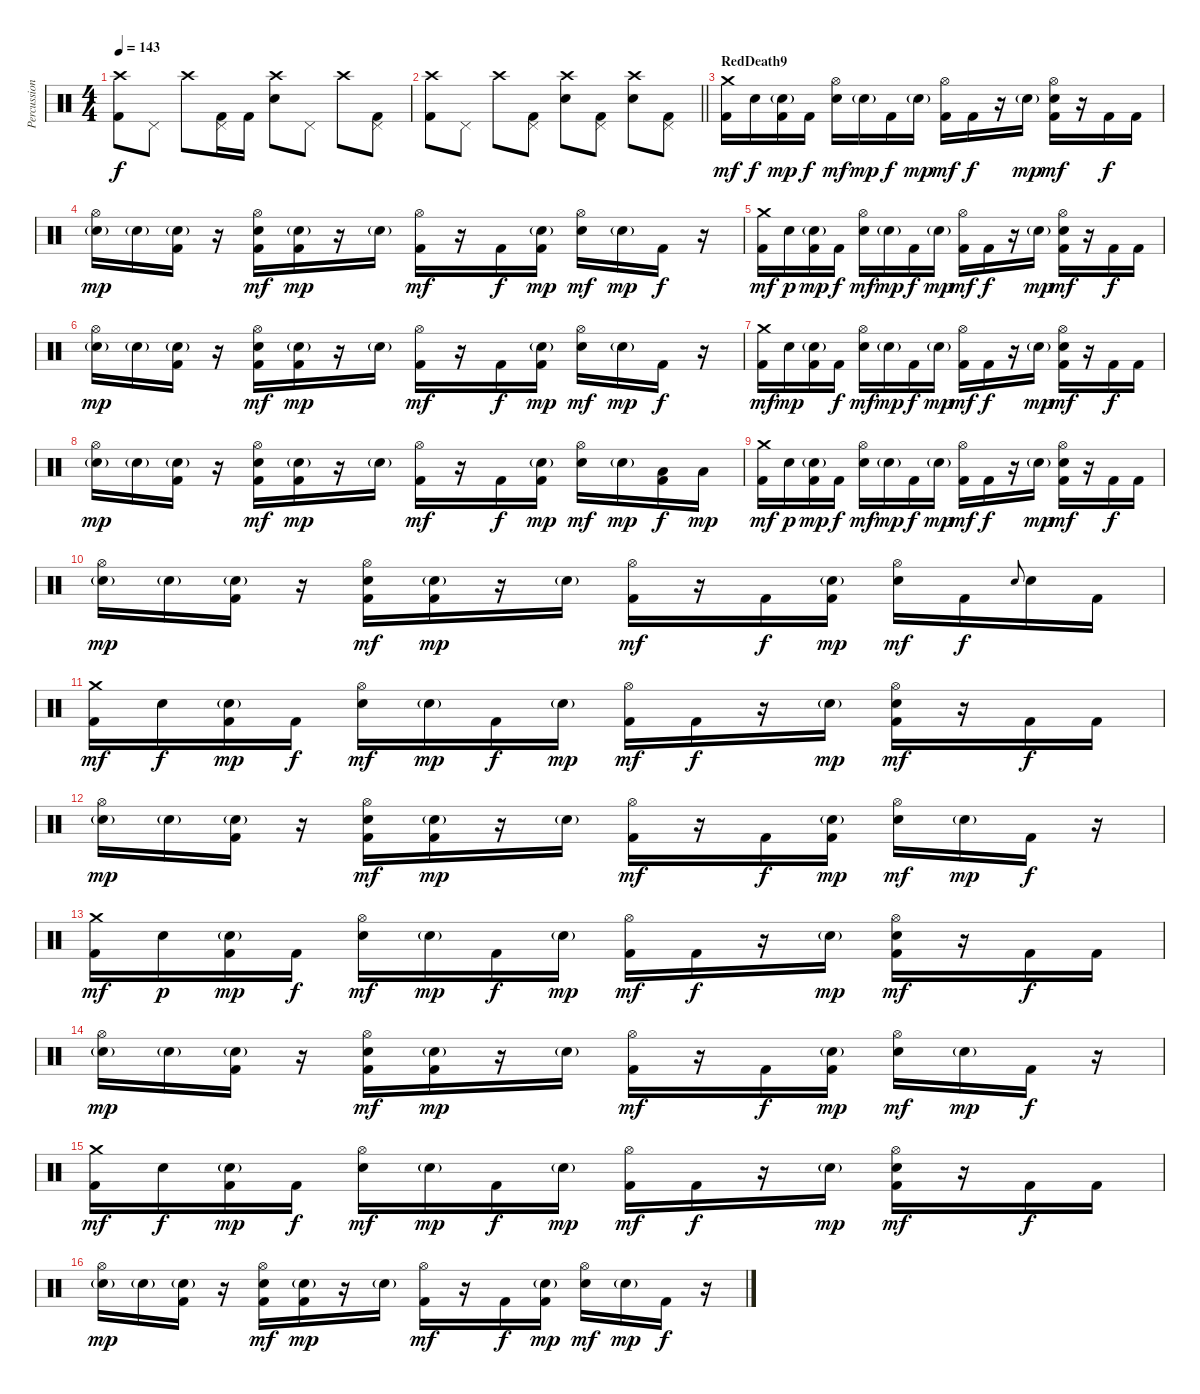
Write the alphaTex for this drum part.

\track ("Percussion" "Percussion") {instrument percussion}
\staff {score}
\articulation defaults
\ts (4 4)
\tempo 143
\clef neutral
\ks c
("Crash high (hit)" "Kick (hit) 2").8{dy f} "Pedal Hi-Hat (hit)".8 "Crash high (hit)".8 ("Pedal Hi-Hat (hit)" "Kick (hit) 2").16 "Kick (hit) 2".16 ("Crash high (hit)" "Snare (hit) 2").8 "Pedal Hi-Hat (hit)".8 "Crash high (hit)".8 ("Pedal Hi-Hat (hit)" "Kick (hit) 2").8 |
\barLineRight lightlight
("Crash high (hit)" "Kick (hit) 2").8 "Pedal Hi-Hat (hit)".8 "Crash high (hit)".8 ("Pedal Hi-Hat (hit)" "Kick (hit) 2").8 ("Crash high (hit)" "Snare (hit) 2").8 ("Pedal Hi-Hat (hit)" "Kick (hit) 2").8 ("Crash high (hit)" "Snare (hit) 2").8 ("Pedal Hi-Hat (hit)" "Kick (hit) 2").8 |
\section ("" "RedDeath9")
("Crash medium (hit)" "Kick (hit) 2").16{dy mf} "Electric Snare (hit)".16{dy f} ("Electric Snare (hit)"{g} "Kick (hit) 2").16{dy mp} "Kick (hit) 2".16{dy f} ("Hi-Hat (open)" "Electric Snare (hit)").16{dy mf} "Electric Snare (hit)"{g}.16{dy mp} "Kick (hit) 2".16{dy f} "Electric Snare (hit)"{g}.16{dy mp} ("Hi-Hat (open)" "Kick (hit) 2").16{dy mf} "Kick (hit) 2".16{dy f} r.16 "Electric Snare (hit)"{g}.16{dy mp} ("Hi-Hat (open)" "Electric Snare (hit)" "Kick (hit) 2").16{dy mf} r.16 "Kick (hit) 2".16{dy f} "Kick (hit) 2".16 |
("Hi-Hat (open)" "Electric Snare (hit)"{g}).16{dy mp} "Electric Snare (hit)"{g}.16 ("Electric Snare (hit)"{g} "Kick (hit) 2").16 r.16 ("Hi-Hat (open)" "Electric Snare (hit)" "Kick (hit) 2").16{dy mf} ("Electric Snare (hit)"{g} "Kick (hit) 2").16{dy mp} r.16 "Electric Snare (hit)"{g}.16 ("Hi-Hat (open)" "Kick (hit) 2").16{dy mf} r.16 "Kick (hit) 2".16{dy f} ("Electric Snare (hit)"{g} "Kick (hit) 2").16{dy mp} ("Hi-Hat (open)" "Electric Snare (hit)").16{dy mf} "Electric Snare (hit)"{g}.16{dy mp} "Kick (hit) 2".16{dy f} r.16 |
("Crash medium (hit)" "Kick (hit) 2").16{dy mf} "Electric Snare (hit)".16{dy p} ("Electric Snare (hit)"{g} "Kick (hit) 2").16{dy mp} "Kick (hit) 2".16{dy f} ("Hi-Hat (open)" "Electric Snare (hit)").16{dy mf} "Electric Snare (hit)"{g}.16{dy mp} "Kick (hit) 2".16{dy f} "Electric Snare (hit)"{g}.16{dy mp} ("Hi-Hat (open)" "Kick (hit) 2").16{dy mf} "Kick (hit) 2".16{dy f} r.16 "Electric Snare (hit)"{g}.16{dy mp} ("Hi-Hat (open)" "Electric Snare (hit)" "Kick (hit) 2").16{dy mf} r.16 "Kick (hit) 2".16{dy f} "Kick (hit) 2".16 |
("Hi-Hat (open)" "Electric Snare (hit)"{g}).16{dy mp} "Electric Snare (hit)"{g}.16 ("Electric Snare (hit)"{g} "Kick (hit) 2").16 r.16 ("Hi-Hat (open)" "Electric Snare (hit)" "Kick (hit) 2").16{dy mf} ("Electric Snare (hit)"{g} "Kick (hit) 2").16{dy mp} r.16 "Electric Snare (hit)"{g}.16 ("Hi-Hat (open)" "Kick (hit) 2").16{dy mf} r.16 "Kick (hit) 2".16{dy f} ("Electric Snare (hit)"{g} "Kick (hit) 2").16{dy mp} ("Hi-Hat (open)" "Electric Snare (hit)").16{dy mf} "Electric Snare (hit)"{g}.16{dy mp} "Kick (hit) 2".16{dy f} r.16 |
("Crash medium (hit)" "Kick (hit) 2").16{dy mf} "Electric Snare (hit)".16{dy mp} ("Electric Snare (hit)"{g} "Kick (hit) 2").16 "Kick (hit) 2".16{dy f} ("Hi-Hat (open)" "Electric Snare (hit)").16{dy mf} "Electric Snare (hit)"{g}.16{dy mp} "Kick (hit) 2".16{dy f} "Electric Snare (hit)"{g}.16{dy mp} ("Hi-Hat (open)" "Kick (hit) 2").16{dy mf} "Kick (hit) 2".16{dy f} r.16 "Electric Snare (hit)"{g}.16{dy mp} ("Hi-Hat (open)" "Electric Snare (hit)" "Kick (hit) 2").16{dy mf} r.16 "Kick (hit) 2".16{dy f} "Kick (hit) 2".16 |
("Hi-Hat (open)" "Electric Snare (hit)"{g}).16{dy mp} "Electric Snare (hit)"{g}.16 ("Electric Snare (hit)"{g} "Kick (hit) 2").16 r.16 ("Hi-Hat (open)" "Electric Snare (hit)" "Kick (hit) 2").16{dy mf} ("Electric Snare (hit)"{g} "Kick (hit) 2").16{dy mp} r.16 "Electric Snare (hit)"{g}.16 ("Hi-Hat (open)" "Kick (hit) 2").16{dy mf} r.16 "Kick (hit) 2".16{dy f} ("Electric Snare (hit)"{g} "Kick (hit) 2").16{dy mp} ("Hi-Hat (open)" "Electric Snare (hit)").16{dy mf} "Electric Snare (hit)"{g}.16{dy mp} ("Low Tom (hit)" "Kick (hit) 2").16{dy f} "Low Tom (hit)".16{dy mp} |
("Crash medium (hit)" "Kick (hit) 2").16{dy mf} "Electric Snare (hit)".16{dy p} ("Electric Snare (hit)"{g} "Kick (hit) 2").16{dy mp} "Kick (hit) 2".16{dy f} ("Hi-Hat (open)" "Electric Snare (hit)").16{dy mf} "Electric Snare (hit)"{g}.16{dy mp} "Kick (hit) 2".16{dy f} "Electric Snare (hit)"{g}.16{dy mp} ("Hi-Hat (open)" "Kick (hit) 2").16{dy mf} "Kick (hit) 2".16{dy f} r.16 "Electric Snare (hit)"{g}.16{dy mp} ("Hi-Hat (open)" "Electric Snare (hit)" "Kick (hit) 2").16{dy mf} r.16 "Kick (hit) 2".16{dy f} "Kick (hit) 2".16 |
("Hi-Hat (open)" "Electric Snare (hit)"{g}).16{dy mp} "Electric Snare (hit)"{g}.16 ("Electric Snare (hit)"{g} "Kick (hit) 2").16 r.16 ("Hi-Hat (open)" "Electric Snare (hit)" "Kick (hit) 2").16{dy mf} ("Electric Snare (hit)"{g} "Kick (hit) 2").16{dy mp} r.16 "Electric Snare (hit)"{g}.16 ("Hi-Hat (open)" "Kick (hit) 2").16{dy mf} r.16 "Kick (hit) 2".16{dy f} ("Electric Snare (hit)"{g} "Kick (hit) 2").16{dy mp} ("Hi-Hat (open)" "Electric Snare (hit)").16{dy mf} "Kick (hit) 2".16{dy f} "Electric Snare (hit)".8{gr onbeat} "Electric Snare (hit)".16 "Kick (hit) 2".16 |
("Crash medium (hit)" "Kick (hit) 2").16{dy mf} "Electric Snare (hit)".16{dy f} ("Electric Snare (hit)"{g} "Kick (hit) 2").16{dy mp} "Kick (hit) 2".16{dy f} ("Hi-Hat (open)" "Electric Snare (hit)").16{dy mf} "Electric Snare (hit)"{g}.16{dy mp} "Kick (hit) 2".16{dy f} "Electric Snare (hit)"{g}.16{dy mp} ("Hi-Hat (open)" "Kick (hit) 2").16{dy mf} "Kick (hit) 2".16{dy f} r.16 "Electric Snare (hit)"{g}.16{dy mp} ("Hi-Hat (open)" "Electric Snare (hit)" "Kick (hit) 2").16{dy mf} r.16 "Kick (hit) 2".16{dy f} "Kick (hit) 2".16 |
("Hi-Hat (open)" "Electric Snare (hit)"{g}).16{dy mp} "Electric Snare (hit)"{g}.16 ("Electric Snare (hit)"{g} "Kick (hit) 2").16 r.16 ("Hi-Hat (open)" "Electric Snare (hit)" "Kick (hit) 2").16{dy mf} ("Electric Snare (hit)"{g} "Kick (hit) 2").16{dy mp} r.16 "Electric Snare (hit)"{g}.16 ("Hi-Hat (open)" "Kick (hit) 2").16{dy mf} r.16 "Kick (hit) 2".16{dy f} ("Electric Snare (hit)"{g} "Kick (hit) 2").16{dy mp} ("Hi-Hat (open)" "Electric Snare (hit)").16{dy mf} "Electric Snare (hit)"{g}.16{dy mp} "Kick (hit) 2".16{dy f} r.16 |
("Crash medium (hit)" "Kick (hit) 2").16{dy mf} "Electric Snare (hit)".16{dy p} ("Electric Snare (hit)"{g} "Kick (hit) 2").16{dy mp} "Kick (hit) 2".16{dy f} ("Hi-Hat (open)" "Electric Snare (hit)").16{dy mf} "Electric Snare (hit)"{g}.16{dy mp} "Kick (hit) 2".16{dy f} "Electric Snare (hit)"{g}.16{dy mp} ("Hi-Hat (open)" "Kick (hit) 2").16{dy mf} "Kick (hit) 2".16{dy f} r.16 "Electric Snare (hit)"{g}.16{dy mp} ("Hi-Hat (open)" "Electric Snare (hit)" "Kick (hit) 2").16{dy mf} r.16 "Kick (hit) 2".16{dy f} "Kick (hit) 2".16 |
("Hi-Hat (open)" "Electric Snare (hit)"{g}).16{dy mp} "Electric Snare (hit)"{g}.16 ("Electric Snare (hit)"{g} "Kick (hit) 2").16 r.16 ("Hi-Hat (open)" "Electric Snare (hit)" "Kick (hit) 2").16{dy mf} ("Electric Snare (hit)"{g} "Kick (hit) 2").16{dy mp} r.16 "Electric Snare (hit)"{g}.16 ("Hi-Hat (open)" "Kick (hit) 2").16{dy mf} r.16 "Kick (hit) 2".16{dy f} ("Electric Snare (hit)"{g} "Kick (hit) 2").16{dy mp} ("Hi-Hat (open)" "Electric Snare (hit)").16{dy mf} "Electric Snare (hit)"{g}.16{dy mp} "Kick (hit) 2".16{dy f} r.16 |
("Crash medium (hit)" "Kick (hit) 2").16{dy mf} "Electric Snare (hit)".16{dy f} ("Electric Snare (hit)"{g} "Kick (hit) 2").16{dy mp} "Kick (hit) 2".16{dy f} ("Hi-Hat (open)" "Electric Snare (hit)").16{dy mf} "Electric Snare (hit)"{g}.16{dy mp} "Kick (hit) 2".16{dy f} "Electric Snare (hit)"{g}.16{dy mp} ("Hi-Hat (open)" "Kick (hit) 2").16{dy mf} "Kick (hit) 2".16{dy f} r.16 "Electric Snare (hit)"{g}.16{dy mp} ("Hi-Hat (open)" "Electric Snare (hit)" "Kick (hit) 2").16{dy mf} r.16 "Kick (hit) 2".16{dy f} "Kick (hit) 2".16 |
("Hi-Hat (open)" "Electric Snare (hit)"{g}).16{dy mp} "Electric Snare (hit)"{g}.16 ("Electric Snare (hit)"{g} "Kick (hit) 2").16 r.16 ("Hi-Hat (open)" "Electric Snare (hit)" "Kick (hit) 2").16{dy mf} ("Electric Snare (hit)"{g} "Kick (hit) 2").16{dy mp} r.16 "Electric Snare (hit)"{g}.16 ("Hi-Hat (open)" "Kick (hit) 2").16{dy mf} r.16 "Kick (hit) 2".16{dy f} ("Electric Snare (hit)"{g} "Kick (hit) 2").16{dy mp} ("Hi-Hat (open)" "Electric Snare (hit)").16{dy mf} "Electric Snare (hit)"{g}.16{dy mp} "Kick (hit) 2".16{dy f} r.16
